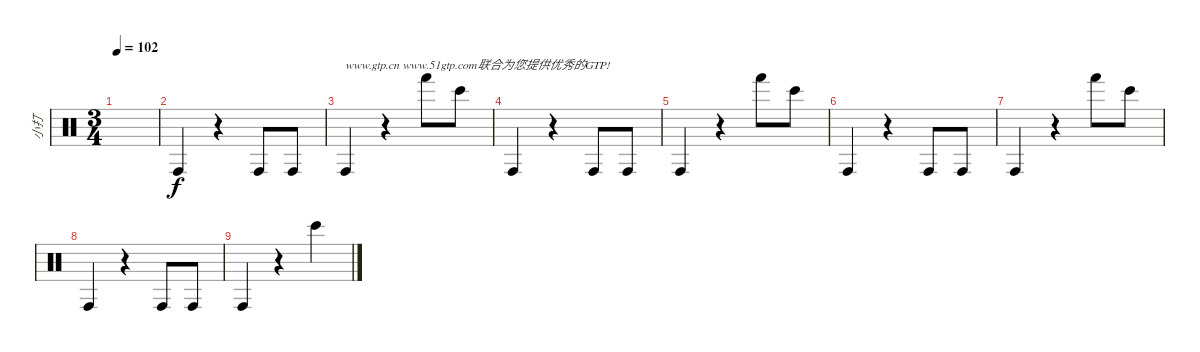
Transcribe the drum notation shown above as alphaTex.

\track ("小打" "小打") {instrument percussion}
\staff {score}
\articulation defaults
\ts (3 4)
\tempo 102
\clef neutral
\ks c
|
"Conga high (hit)".4 r.4 "Conga high (hit)".8 "Conga high (hit)".8 |
"Conga high (hit)".4{txt "www.gtp.cn www.51gtp.com联合为您提供优秀的GTP!"} r.4 "Hand (hit)".8 "Bongo High (hit)".8 |
"Conga high (hit)".4 r.4 "Conga high (hit)".8 "Conga high (hit)".8 |
"Conga high (hit)".4 r.4 "Hand (hit)".8 "Bongo High (hit)".8 |
"Conga high (hit)".4 r.4 "Conga high (hit)".8 "Conga high (hit)".8 |
"Conga high (hit)".4 r.4 "Hand (hit)".8 "Bongo High (hit)".8 |
"Conga high (hit)".4 r.4 "Conga high (hit)".8 "Conga high (hit)".8 |
"Conga high (hit)".4 r.4 "Bongo High (hit)".4
